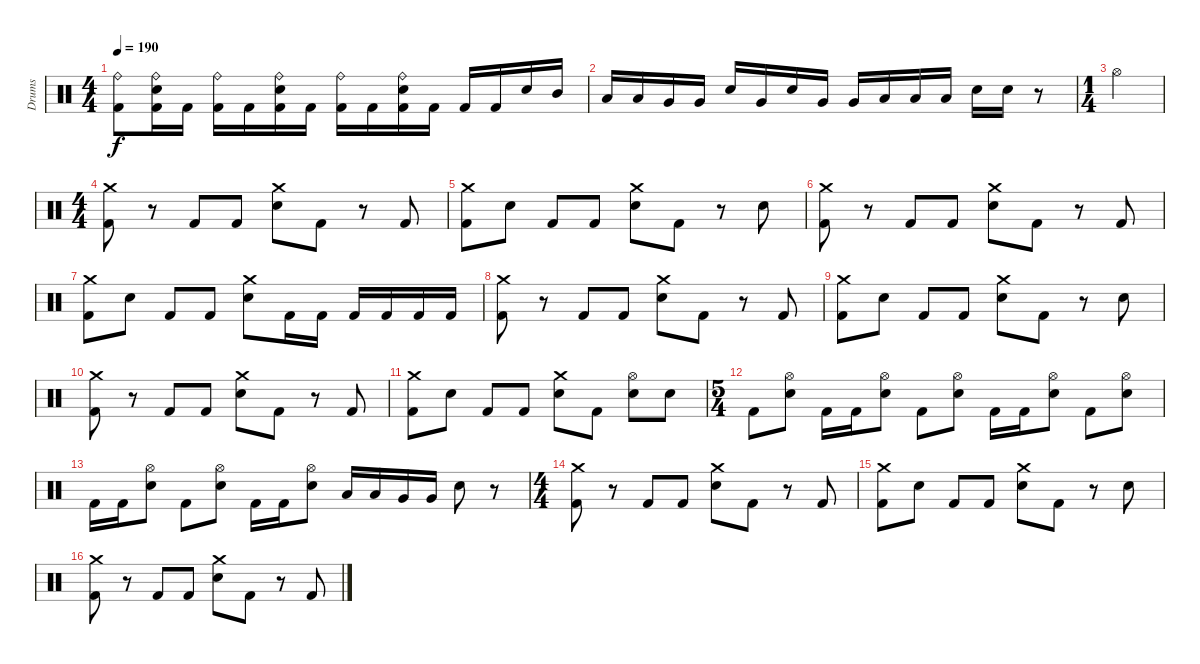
\track ("Drums" "Drums") {instrument percussion}
\staff {score}
\articulation defaults
\ts (4 4)
\tempo 190
\clef neutral
\ks c
("Ride (bell)" "Kick (hit) 2").8{dy f} ("Ride (bell)" "Electric Snare (hit)" "Kick (hit) 2").16 "Kick (hit) 2".16 ("Ride (bell)" "Kick (hit) 2").16 "Kick (hit) 2".16 ("Ride (bell)" "Electric Snare (hit)" "Kick (hit) 2").16 "Kick (hit) 2".16 ("Ride (bell)" "Kick (hit) 2").16 "Kick (hit) 2".16 ("Ride (bell)" "Electric Snare (hit)" "Kick (hit) 2").16 "Kick (hit) 2".16 "Kick (hit) 2".16 "Kick (hit) 2".16 "Electric Snare (hit)".16 "Mid Tom (hit)".16 |
"Low Tom (hit)".16 "Low Tom (hit)".16 "Very Low Tom (hit)".16 "Very Low Tom (hit)".16 "Electric Snare (hit)".16 "Very Low Tom (hit)".16 "Electric Snare (hit)".16 "Very Low Tom (hit)".16 "Very Low Tom (hit)".16 "Low Floor Tom (hit)".16 "Low Floor Tom (hit)".16 "Low Floor Tom (hit)".16 "Electric Snare (hit)".16 "Electric Snare (hit)".16 r.8 |
\ts (1 4)
"Hi-Hat (open)".4 |
\ts (4 4)
("Crash medium (hit)" "Kick (hit) 2").8 r.8 "Kick (hit) 2".8 "Kick (hit) 2".8 ("Crash medium (hit)" "Electric Snare (hit)").8 "Kick (hit) 2".8 r.8 "Kick (hit) 2".8 |
("Crash medium (hit)" "Kick (hit) 2").8 "Electric Snare (hit)".8 "Kick (hit) 2".8 "Kick (hit) 2".8 ("Crash medium (hit)" "Electric Snare (hit)").8 "Kick (hit) 2".8 r.8 "Electric Snare (hit)".8 |
("Crash medium (hit)" "Kick (hit) 2").8 r.8 "Kick (hit) 2".8 "Kick (hit) 2".8 ("Crash medium (hit)" "Electric Snare (hit)").8 "Kick (hit) 2".8 r.8 "Kick (hit) 2".8 |
("Crash medium (hit)" "Kick (hit) 2").8 "Electric Snare (hit)".8 "Kick (hit) 2".8 "Kick (hit) 2".8 ("Crash medium (hit)" "Electric Snare (hit)").8 "Kick (hit) 2".16 "Kick (hit) 2".16 "Kick (hit) 2".16 "Kick (hit) 2".16 "Kick (hit) 2".16 "Kick (hit) 2".16 |
("Crash medium (hit)" "Kick (hit) 2").8 r.8 "Kick (hit) 2".8 "Kick (hit) 2".8 ("Crash medium (hit)" "Electric Snare (hit)").8 "Kick (hit) 2".8 r.8 "Kick (hit) 2".8 |
("Crash medium (hit)" "Kick (hit) 2").8 "Electric Snare (hit)".8 "Kick (hit) 2".8 "Kick (hit) 2".8 ("Crash medium (hit)" "Electric Snare (hit)").8 "Kick (hit) 2".8 r.8 "Electric Snare (hit)".8 |
("Crash medium (hit)" "Kick (hit) 2").8 r.8 "Kick (hit) 2".8 "Kick (hit) 2".8 ("Crash medium (hit)" "Electric Snare (hit)").8 "Kick (hit) 2".8 r.8 "Kick (hit) 2".8 |
("Crash medium (hit)" "Kick (hit) 2").8 "Electric Snare (hit)".8 "Kick (hit) 2".8 "Kick (hit) 2".8 ("Crash medium (hit)" "Electric Snare (hit)").8 "Kick (hit) 2".8 ("Hi-Hat (open)" "Electric Snare (hit)").8 "Electric Snare (hit)".8 |
\ts (5 4)
"Kick (hit) 2".8 ("Hi-Hat (open)" "Electric Snare (hit)").8 "Kick (hit) 2".16 "Kick (hit) 2".16 ("Hi-Hat (open)" "Electric Snare (hit)").8 "Kick (hit) 2".8 ("Hi-Hat (open)" "Electric Snare (hit)").8 "Kick (hit) 2".16 "Kick (hit) 2".16 ("Hi-Hat (open)" "Electric Snare (hit)").8 "Kick (hit) 2".8 ("Hi-Hat (open)" "Electric Snare (hit)").8 |
"Kick (hit) 2".16 "Kick (hit) 2".16 ("Hi-Hat (open)" "Electric Snare (hit)").8 "Kick (hit) 2".8 ("Hi-Hat (open)" "Electric Snare (hit)").8 "Kick (hit) 2".16 "Kick (hit) 2".16 ("Hi-Hat (open)" "Electric Snare (hit)").8 "Low Tom (hit)".16 "Low Tom (hit)".16 "Very Low Tom (hit)".16 "Very Low Tom (hit)".16 "Electric Snare (hit)".8 r.8 |
\ts (4 4)
("Crash medium (hit)" "Kick (hit) 2").8 r.8 "Kick (hit) 2".8 "Kick (hit) 2".8 ("Crash medium (hit)" "Electric Snare (hit)").8 "Kick (hit) 2".8 r.8 "Kick (hit) 2".8 |
("Crash medium (hit)" "Kick (hit) 2").8 "Electric Snare (hit)".8 "Kick (hit) 2".8 "Kick (hit) 2".8 ("Crash medium (hit)" "Electric Snare (hit)").8 "Kick (hit) 2".8 r.8 "Electric Snare (hit)".8 |
("Crash medium (hit)" "Kick (hit) 2").8 r.8 "Kick (hit) 2".8 "Kick (hit) 2".8 ("Crash medium (hit)" "Electric Snare (hit)").8 "Kick (hit) 2".8 r.8 "Kick (hit) 2".8
